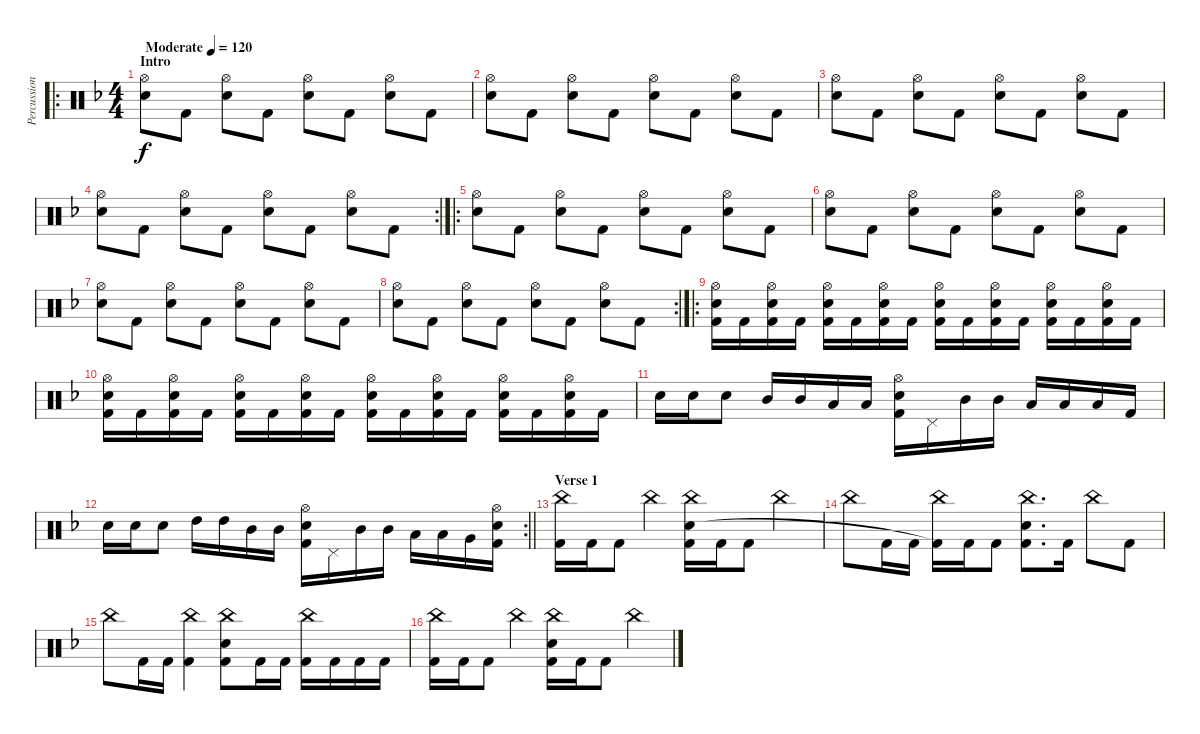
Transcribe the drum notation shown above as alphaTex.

\track ("Percussions" "Percussion") {instrument percussion}
\staff {score}
\articulation defaults
\ro
\ts (4 4)
\section ("" "Intro")
\tempo (120 "Moderate")
\clef neutral
\ks f
("Hi-Hat (open)" "Electric Snare (hit)").8{dy f} "Kick (hit) 2".8 ("Hi-Hat (open)" "Electric Snare (hit)").8 "Kick (hit) 2".8 ("Hi-Hat (open)" "Electric Snare (hit)").8 "Kick (hit) 2".8 ("Hi-Hat (open)" "Electric Snare (hit)").8 "Kick (hit) 2".8 |
("Hi-Hat (open)" "Electric Snare (hit)").8 "Kick (hit) 2".8 ("Hi-Hat (open)" "Electric Snare (hit)").8 "Kick (hit) 2".8 ("Hi-Hat (open)" "Electric Snare (hit)").8 "Kick (hit) 2".8 ("Hi-Hat (open)" "Electric Snare (hit)").8 "Kick (hit) 2".8 |
("Hi-Hat (open)" "Electric Snare (hit)").8 "Kick (hit) 2".8 ("Hi-Hat (open)" "Electric Snare (hit)").8 "Kick (hit) 2".8 ("Hi-Hat (open)" "Electric Snare (hit)").8 "Kick (hit) 2".8 ("Hi-Hat (open)" "Electric Snare (hit)").8 "Kick (hit) 2".8 |
\rc 2
("Hi-Hat (open)" "Electric Snare (hit)").8 "Kick (hit) 2".8 ("Hi-Hat (open)" "Electric Snare (hit)").8 "Kick (hit) 2".8 ("Hi-Hat (open)" "Electric Snare (hit)").8 "Kick (hit) 2".8 ("Hi-Hat (open)" "Electric Snare (hit)").8 "Kick (hit) 2".8 |
\ro
("Hi-Hat (open)" "Electric Snare (hit)").8 "Kick (hit) 2".8 ("Hi-Hat (open)" "Electric Snare (hit)").8 "Kick (hit) 2".8 ("Hi-Hat (open)" "Electric Snare (hit)").8 "Kick (hit) 2".8 ("Hi-Hat (open)" "Electric Snare (hit)").8 "Kick (hit) 2".8 |
("Hi-Hat (open)" "Electric Snare (hit)").8 "Kick (hit) 2".8 ("Hi-Hat (open)" "Electric Snare (hit)").8 "Kick (hit) 2".8 ("Hi-Hat (open)" "Electric Snare (hit)").8 "Kick (hit) 2".8 ("Hi-Hat (open)" "Electric Snare (hit)").8 "Kick (hit) 2".8 |
("Hi-Hat (open)" "Electric Snare (hit)").8 "Kick (hit) 2".8 ("Hi-Hat (open)" "Electric Snare (hit)").8 "Kick (hit) 2".8 ("Hi-Hat (open)" "Electric Snare (hit)").8 "Kick (hit) 2".8 ("Hi-Hat (open)" "Electric Snare (hit)").8 "Kick (hit) 2".8 |
\rc 2
("Hi-Hat (open)" "Electric Snare (hit)").8 "Kick (hit) 2".8 ("Hi-Hat (open)" "Electric Snare (hit)").8 "Kick (hit) 2".8 ("Hi-Hat (open)" "Electric Snare (hit)").8 "Kick (hit) 2".8 ("Hi-Hat (open)" "Electric Snare (hit)").8 "Kick (hit) 2".8 |
\ro
("Hi-Hat (open)" "Electric Snare (hit)" "Kick (hit) 2").16 "Kick (hit) 2".16 ("Hi-Hat (open)" "Electric Snare (hit)" "Kick (hit) 2").16 "Kick (hit) 2".16 ("Hi-Hat (open)" "Electric Snare (hit)" "Kick (hit) 2").16 "Kick (hit) 2".16 ("Hi-Hat (open)" "Electric Snare (hit)" "Kick (hit) 2").16 "Kick (hit) 2".16 ("Hi-Hat (open)" "Electric Snare (hit)" "Kick (hit) 2").16 "Kick (hit) 2".16 ("Hi-Hat (open)" "Electric Snare (hit)" "Kick (hit) 2").16 "Kick (hit) 2".16 ("Hi-Hat (open)" "Electric Snare (hit)" "Kick (hit) 2").16 "Kick (hit) 2".16 ("Hi-Hat (open)" "Electric Snare (hit)" "Kick (hit) 2").16 "Kick (hit) 2".16 |
("Hi-Hat (open)" "Electric Snare (hit)" "Kick (hit) 2").16 "Kick (hit) 2".16 ("Hi-Hat (open)" "Electric Snare (hit)" "Kick (hit) 2").16 "Kick (hit) 2".16 ("Hi-Hat (open)" "Electric Snare (hit)" "Kick (hit) 2").16 "Kick (hit) 2".16 ("Hi-Hat (open)" "Electric Snare (hit)" "Kick (hit) 2").16 "Kick (hit) 2".16 ("Hi-Hat (open)" "Electric Snare (hit)" "Kick (hit) 2").16 "Kick (hit) 2".16 ("Hi-Hat (open)" "Electric Snare (hit)" "Kick (hit) 2").16 "Kick (hit) 2".16 ("Hi-Hat (open)" "Electric Snare (hit)" "Kick (hit) 2").16 "Kick (hit) 2".16 ("Hi-Hat (open)" "Electric Snare (hit)" "Kick (hit) 2").16 "Kick (hit) 2".16 |
"Electric Snare (hit)".16 "Electric Snare (hit)".16 "Electric Snare (hit)".8 "Mid Tom (hit)".16 "Mid Tom (hit)".16 "Low Tom (hit)".16 "Low Tom (hit)".16 ("Hi-Hat (open)" "Electric Snare (hit)" "Kick (hit) 2").16 "Pedal Hi-Hat (hit)".16 "Mid Tom (hit)".16 "Mid Tom (hit)".16 "Low Tom (hit)".16 "Low Tom (hit)".16 "Low Tom (hit)".16 "Kick (hit) 2".16 |
\rc 2
\barLineRight lightlight "Electric Snare (hit)".16 "Electric Snare (hit)".16 "Electric Snare (hit)".8 "High Tom (hit)".16 "High Tom (hit)".16 "Mid Tom (hit)".16 "Mid Tom (hit)".16
("Hi-Hat (open)" "Electric Snare (hit)" "Kick (hit) 2").16 "Pedal Hi-Hat (hit)".16 "Mid Tom (hit)".16 "Mid Tom (hit)".16 "Low Tom (hit)".16 "Low Tom (hit)".16 "Very Low Tom (hit)".16 ("Hi-Hat (open)" "Electric Snare (hit)" "Kick (hit) 2").16 |
\section ("" "Verse 1")
("China (hit)" "Kick (hit) 2").16 "Kick (hit) 2".16 "Kick (hit) 2".8 "China (hit)".4 ("China (hit)" "Electric Snare (hit)" "Kick (hit) 2").16 "Kick (hit) 2".16 "Kick (hit) 2".8 "China (hit)".4 |
"China (hit)".8 "Kick (hit) 2".16 "Kick (hit) 2".16 ("China (hit)" "Kick (hit) 2"{t}).16 "Kick (hit) 2".16 "Kick (hit) 2".8 ("China (hit)" "Electric Snare (hit)" "Kick (hit) 2").8{d} "Kick (hit) 2".16 "China (hit)".8 "Kick (hit) 2".8 |
"China (hit)".8 "Kick (hit) 2".16 "Kick (hit) 2".16 ("China (hit)" "Kick (hit) 2").4 ("China (hit)" "Electric Snare (hit)" "Kick (hit) 2").8 "Kick (hit) 2".16 "Kick (hit) 2".16 ("China (hit)" "Kick (hit) 2").16 "Kick (hit) 2".16 "Kick (hit) 2".16 "Kick (hit) 2".16 |
("China (hit)" "Kick (hit) 2").16 "Kick (hit) 2".16 "Kick (hit) 2".8 "China (hit)".4 ("China (hit)" "Electric Snare (hit)" "Kick (hit) 2").16 "Kick (hit) 2".16 "Kick (hit) 2".8 "China (hit)".4
